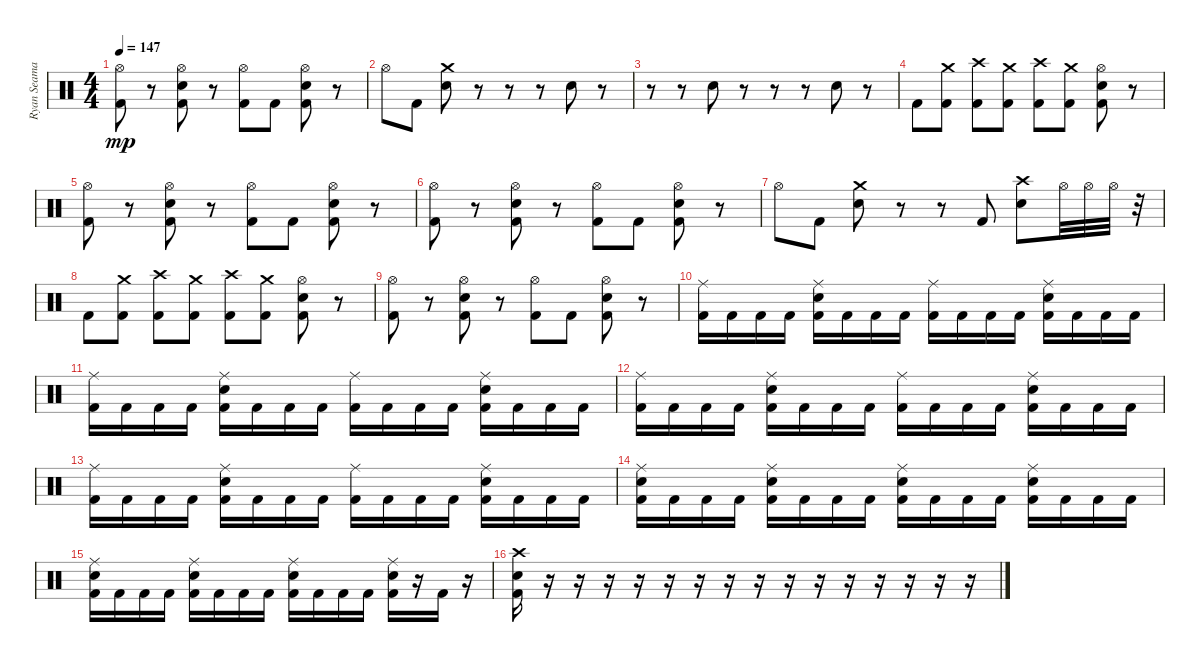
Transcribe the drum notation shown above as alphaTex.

\track ("Ryan Seaman - Drum" "Ryan Seama") {instrument percussion}
\staff {score}
\articulation defaults
\ts (4 4)
\tempo 147
\clef neutral
\ks c
("Hi-Hat (open)" "Kick (hit) 2").8{dy mp} r.8 ("Hi-Hat (open)" "Electric Snare (hit)" "Kick (hit) 2").8 r.8 ("Hi-Hat (open)" "Kick (hit) 2").8 "Kick (hit) 2".8 ("Hi-Hat (open)" "Electric Snare (hit)" "Kick (hit) 2").8 r.8 |
"Hi-Hat (open)".8 "Kick (hit) 2".8 ("Crash medium (hit)" "Electric Snare (hit)").8 r.8 r.8 r.8 "Electric Snare (hit)".8 r.8 |
r.8 r.8 "Electric Snare (hit)".8 r.8 r.8 r.8 "Electric Snare (hit)".8 r.8 |
"Kick (hit) 2".8 ("Crash medium (hit)" "Kick (hit) 2").8 ("Crash high (hit)" "Kick (hit) 2").8 ("Crash medium (hit)" "Kick (hit) 2").8 ("Crash high (hit)" "Kick (hit) 2").8 ("Crash medium (hit)" "Kick (hit) 2").8 ("Hi-Hat (open)" "Electric Snare (hit)" "Kick (hit) 2").8 r.8 |
("Hi-Hat (open)" "Kick (hit) 2").8 r.8 ("Hi-Hat (open)" "Electric Snare (hit)" "Kick (hit) 2").8 r.8 ("Hi-Hat (open)" "Kick (hit) 2").8 "Kick (hit) 2".8 ("Hi-Hat (open)" "Electric Snare (hit)" "Kick (hit) 2").8 r.8 |
("Hi-Hat (open)" "Kick (hit) 2").8 r.8 ("Hi-Hat (open)" "Electric Snare (hit)" "Kick (hit) 2").8 r.8 ("Hi-Hat (open)" "Kick (hit) 2").8 "Kick (hit) 2".8 ("Hi-Hat (open)" "Electric Snare (hit)" "Kick (hit) 2").8 r.8 |
"Hi-Hat (open)".8 "Kick (hit) 2".8 ("Crash medium (hit)" "Electric Snare (hit)").8 r.8 r.8 "Kick (hit) 2".8 ("Crash high (hit)" "Electric Snare (hit)").8 "Hi-Hat (open)".32 "Hi-Hat (open)".32 "Hi-Hat (open)".32 r.32 |
"Kick (hit) 2".8 ("Crash medium (hit)" "Kick (hit) 2").8 ("Crash high (hit)" "Kick (hit) 2").8 ("Crash medium (hit)" "Kick (hit) 2").8 ("Crash high (hit)" "Kick (hit) 2").8 ("Crash medium (hit)" "Kick (hit) 2").8 ("Hi-Hat (open)" "Electric Snare (hit)" "Kick (hit) 2").8 r.8 |
("Hi-Hat (open)" "Kick (hit) 2").8 r.8 ("Hi-Hat (open)" "Electric Snare (hit)" "Kick (hit) 2").8 r.8 ("Hi-Hat (open)" "Kick (hit) 2").8 "Kick (hit) 2".8 ("Hi-Hat (open)" "Electric Snare (hit)" "Kick (hit) 2").8 r.8 |
("Ride (middle)" "Kick (hit) 2").16 "Kick (hit) 2".16 "Kick (hit) 2".16 "Kick (hit) 2".16 ("Ride (middle)" "Electric Snare (hit)" "Kick (hit) 2").16 "Kick (hit) 2".16 "Kick (hit) 2".16 "Kick (hit) 2".16 ("Ride (middle)" "Kick (hit) 2").16 "Kick (hit) 2".16 "Kick (hit) 2".16 "Kick (hit) 2".16 ("Ride (middle)" "Electric Snare (hit)" "Kick (hit) 2").16 "Kick (hit) 2".16 "Kick (hit) 2".16 "Kick (hit) 2".16 |
("Ride (middle)" "Kick (hit) 2").16 "Kick (hit) 2".16 "Kick (hit) 2".16 "Kick (hit) 2".16 ("Ride (middle)" "Electric Snare (hit)" "Kick (hit) 2").16 "Kick (hit) 2".16 "Kick (hit) 2".16 "Kick (hit) 2".16 ("Ride (middle)" "Kick (hit) 2").16 "Kick (hit) 2".16 "Kick (hit) 2".16 "Kick (hit) 2".16 ("Ride (middle)" "Electric Snare (hit)" "Kick (hit) 2").16 "Kick (hit) 2".16 "Kick (hit) 2".16 "Kick (hit) 2".16 |
("Ride (middle)" "Kick (hit) 2").16 "Kick (hit) 2".16 "Kick (hit) 2".16 "Kick (hit) 2".16 ("Ride (middle)" "Electric Snare (hit)" "Kick (hit) 2").16 "Kick (hit) 2".16 "Kick (hit) 2".16 "Kick (hit) 2".16 ("Ride (middle)" "Kick (hit) 2").16 "Kick (hit) 2".16 "Kick (hit) 2".16 "Kick (hit) 2".16 ("Ride (middle)" "Electric Snare (hit)" "Kick (hit) 2").16 "Kick (hit) 2".16 "Kick (hit) 2".16 "Kick (hit) 2".16 |
("Ride (middle)" "Kick (hit) 2").16 "Kick (hit) 2".16 "Kick (hit) 2".16 "Kick (hit) 2".16 ("Ride (middle)" "Electric Snare (hit)" "Kick (hit) 2").16 "Kick (hit) 2".16 "Kick (hit) 2".16 "Kick (hit) 2".16 ("Ride (middle)" "Kick (hit) 2").16 "Kick (hit) 2".16 "Kick (hit) 2".16 "Kick (hit) 2".16 ("Ride (middle)" "Electric Snare (hit)" "Kick (hit) 2").16 "Kick (hit) 2".16 "Kick (hit) 2".16 "Kick (hit) 2".16 |
("Ride (middle)" "Electric Snare (hit)" "Kick (hit) 2").16 "Kick (hit) 2".16 "Kick (hit) 2".16 "Kick (hit) 2".16 ("Ride (middle)" "Electric Snare (hit)" "Kick (hit) 2").16 "Kick (hit) 2".16 "Kick (hit) 2".16 "Kick (hit) 2".16 ("Ride (middle)" "Electric Snare (hit)" "Kick (hit) 2").16 "Kick (hit) 2".16 "Kick (hit) 2".16 "Kick (hit) 2".16 ("Ride (middle)" "Electric Snare (hit)" "Kick (hit) 2").16 "Kick (hit) 2".16 "Kick (hit) 2".16 "Kick (hit) 2".16 |
("Ride (middle)" "Electric Snare (hit)" "Kick (hit) 2").16 "Kick (hit) 2".16 "Kick (hit) 2".16 "Kick (hit) 2".16 ("Ride (middle)" "Electric Snare (hit)" "Kick (hit) 2").16 "Kick (hit) 2".16 "Kick (hit) 2".16 "Kick (hit) 2".16 ("Ride (middle)" "Electric Snare (hit)" "Kick (hit) 2").16 "Kick (hit) 2".16 "Kick (hit) 2".16 "Kick (hit) 2".16 ("Ride (middle)" "Electric Snare (hit)" "Kick (hit) 2").16 r.16 "Kick (hit) 2".16 r.16 |
("Crash high (hit)" "Electric Snare (hit)" "Kick (hit) 2").16 r.16 r.16 r.16 r.16 r.16 r.16 r.16 r.16 r.16 r.16 r.16 r.16 r.16 r.16 r.16
